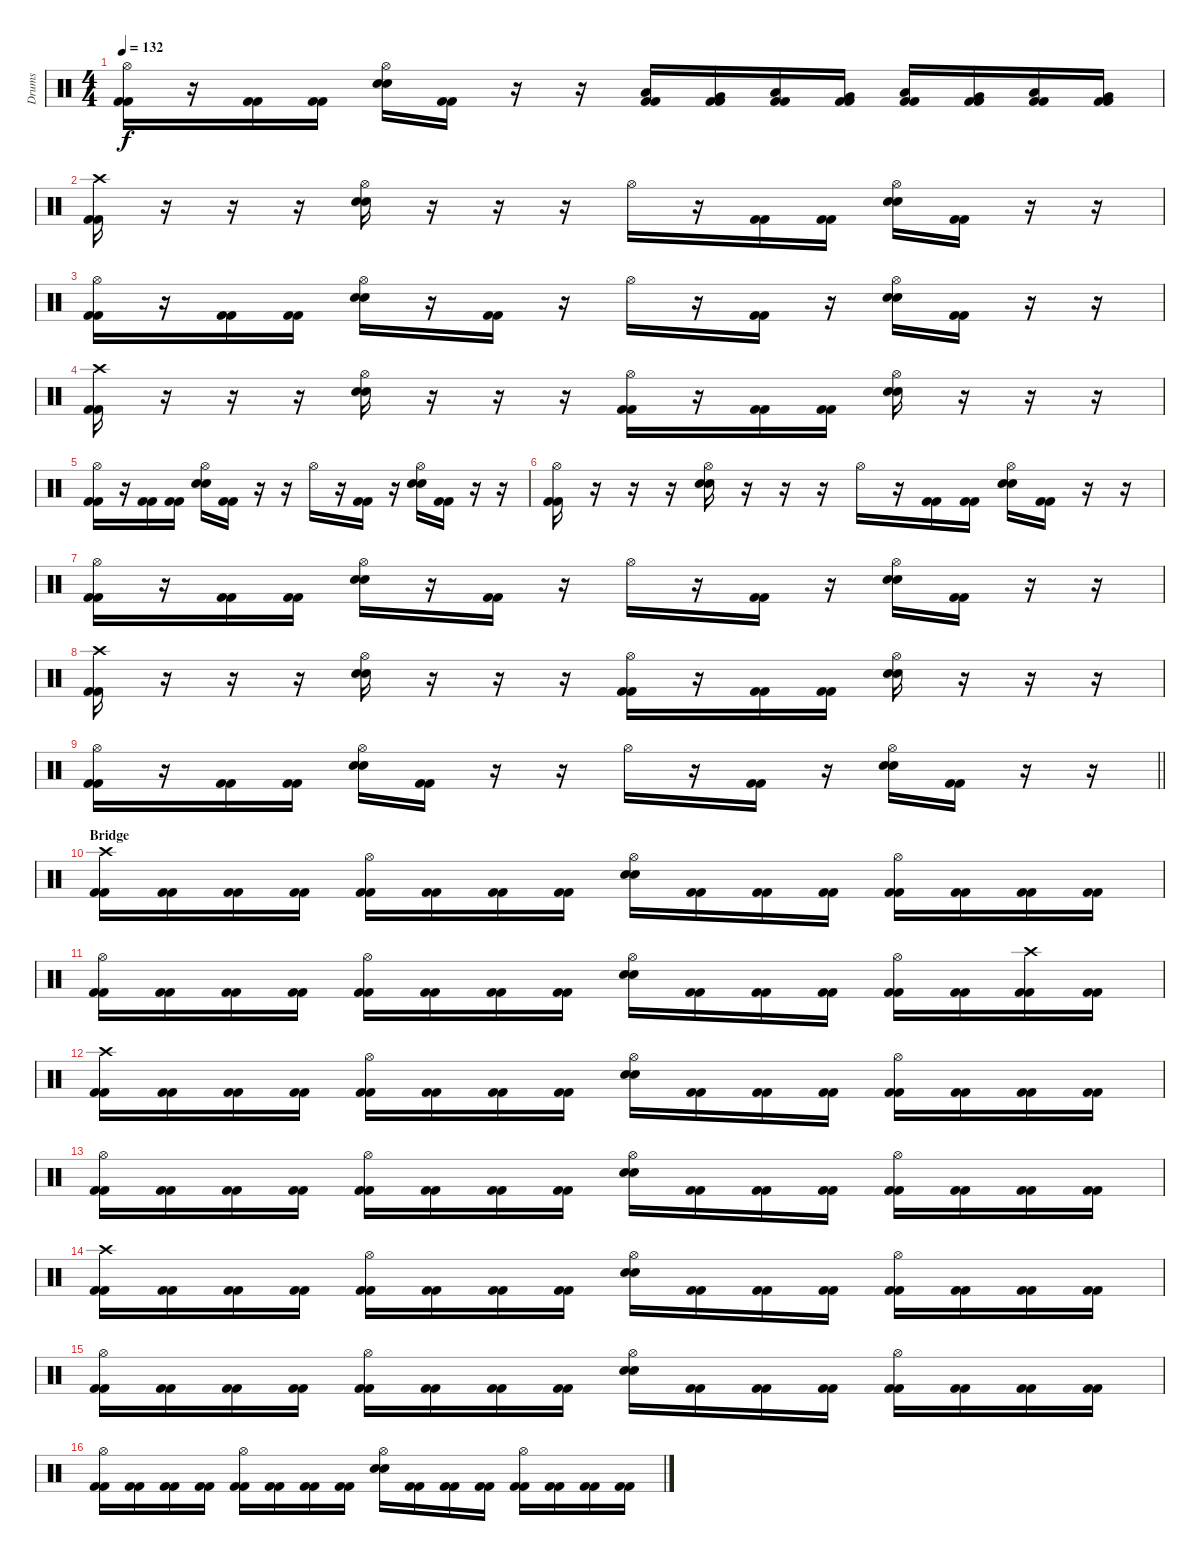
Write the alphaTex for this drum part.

\track ("Drums" "Drums") {instrument percussion}
\staff {score}
\articulation defaults
\ts (4 4)
\tempo 132
\clef neutral
\ks c
("Hi-Hat (open)" "Kick (hit) 2" "Kick (hit) 2").16{dy f} r.16 ("Kick (hit) 2" "Kick (hit) 2").16 ("Kick (hit) 2" "Kick (hit) 2").16 ("Hi-Hat (open)" "Snare (hit) 2" "Snare (hit) 2").16 ("Kick (hit) 2" "Kick (hit) 2").16 r.16 r.16 ("Low Tom (hit)" "Kick (hit) 2" "Kick (hit) 2").16 ("Very Low Tom (hit)" "Kick (hit) 2" "Kick (hit) 2").16 ("Low Tom (hit)" "Kick (hit) 2" "Kick (hit) 2").16 ("Very Low Tom (hit)" "Kick (hit) 2" "Kick (hit) 2").16 ("Low Tom (hit)" "Kick (hit) 2" "Kick (hit) 2").16 ("Very Low Tom (hit)" "Kick (hit) 2" "Kick (hit) 2").16 ("Low Tom (hit)" "Kick (hit) 2" "Kick (hit) 2").16 ("Very Low Tom (hit)" "Kick (hit) 2" "Kick (hit) 2").16 |
("Crash high (hit)" "Kick (hit) 2" "Kick (hit) 2").16 r.16 r.16 r.16 ("Hi-Hat (open)" "Snare (hit) 2" "Snare (hit) 2").16 r.16 r.16 r.16 "Hi-Hat (open)".16 r.16 ("Kick (hit) 2" "Kick (hit) 2").16 ("Kick (hit) 2" "Kick (hit) 2").16 ("Hi-Hat (open)" "Snare (hit) 2" "Snare (hit) 2").16 ("Kick (hit) 2" "Kick (hit) 2").16 r.16 r.16 |
("Hi-Hat (open)" "Kick (hit) 2" "Kick (hit) 2").16 r.16 ("Kick (hit) 2" "Kick (hit) 2").16 ("Kick (hit) 2" "Kick (hit) 2").16 ("Hi-Hat (open)" "Snare (hit) 2" "Snare (hit) 2").16 r.16 ("Kick (hit) 2" "Kick (hit) 2").16 r.16 "Hi-Hat (open)".16 r.16 ("Kick (hit) 2" "Kick (hit) 2").16 r.16 ("Hi-Hat (open)" "Snare (hit) 2" "Snare (hit) 2").16 ("Kick (hit) 2" "Kick (hit) 2").16 r.16 r.16 |
("Crash high (hit)" "Kick (hit) 2" "Kick (hit) 2").16 r.16 r.16 r.16 ("Hi-Hat (open)" "Snare (hit) 2" "Snare (hit) 2").16 r.16 r.16 r.16 ("Hi-Hat (open)" "Kick (hit) 2" "Kick (hit) 2").16 r.16 ("Kick (hit) 2" "Kick (hit) 2").16 ("Kick (hit) 2" "Kick (hit) 2").16 ("Hi-Hat (open)" "Snare (hit) 2" "Snare (hit) 2").16 r.16 r.16 r.16 |
("Hi-Hat (open)" "Kick (hit) 2" "Kick (hit) 2").16 r.16 ("Kick (hit) 2" "Kick (hit) 2").16 ("Kick (hit) 2" "Kick (hit) 2").16 ("Hi-Hat (open)" "Snare (hit) 2" "Snare (hit) 2").16 ("Kick (hit) 2" "Kick (hit) 2").16 r.16 r.16 "Hi-Hat (open)".16 r.16 ("Kick (hit) 2" "Kick (hit) 2").16 r.16 ("Hi-Hat (open)" "Snare (hit) 2" "Snare (hit) 2").16 ("Kick (hit) 2" "Kick (hit) 2").16 r.16 r.16 |
("Hi-Hat (open)" "Kick (hit) 2" "Kick (hit) 2").16 r.16 r.16 r.16 ("Hi-Hat (open)" "Snare (hit) 2" "Snare (hit) 2").16 r.16 r.16 r.16 "Hi-Hat (open)".16 r.16 ("Kick (hit) 2" "Kick (hit) 2").16 ("Kick (hit) 2" "Kick (hit) 2").16 ("Hi-Hat (open)" "Snare (hit) 2" "Snare (hit) 2").16 ("Kick (hit) 2" "Kick (hit) 2").16 r.16 r.16 |
("Hi-Hat (open)" "Kick (hit) 2" "Kick (hit) 2").16 r.16 ("Kick (hit) 2" "Kick (hit) 2").16 ("Kick (hit) 2" "Kick (hit) 2").16 ("Hi-Hat (open)" "Snare (hit) 2" "Snare (hit) 2").16 r.16 ("Kick (hit) 2" "Kick (hit) 2").16 r.16 "Hi-Hat (open)".16 r.16 ("Kick (hit) 2" "Kick (hit) 2").16 r.16 ("Hi-Hat (open)" "Snare (hit) 2" "Snare (hit) 2").16 ("Kick (hit) 2" "Kick (hit) 2").16 r.16 r.16 |
("Crash high (hit)" "Kick (hit) 2" "Kick (hit) 2").16 r.16 r.16 r.16 ("Hi-Hat (open)" "Snare (hit) 2" "Snare (hit) 2").16 r.16 r.16 r.16 ("Hi-Hat (open)" "Kick (hit) 2" "Kick (hit) 2").16 r.16 ("Kick (hit) 2" "Kick (hit) 2").16 ("Kick (hit) 2" "Kick (hit) 2").16 ("Hi-Hat (open)" "Snare (hit) 2" "Snare (hit) 2").16 r.16 r.16 r.16 |
\barLineRight lightlight
("Hi-Hat (open)" "Kick (hit) 2" "Kick (hit) 2").16 r.16 ("Kick (hit) 2" "Kick (hit) 2").16 ("Kick (hit) 2" "Kick (hit) 2").16 ("Hi-Hat (open)" "Snare (hit) 2" "Snare (hit) 2").16 ("Kick (hit) 2" "Kick (hit) 2").16 r.16 r.16 "Hi-Hat (open)".16 r.16 ("Kick (hit) 2" "Kick (hit) 2").16 r.16 ("Hi-Hat (open)" "Snare (hit) 2" "Snare (hit) 2").16 ("Kick (hit) 2" "Kick (hit) 2").16 r.16 r.16 |
\section ("" "Bridge")
("Crash high (hit)" "Kick (hit) 2" "Kick (hit) 2").16 ("Kick (hit) 2" "Kick (hit) 2").16 ("Kick (hit) 2" "Kick (hit) 2").16 ("Kick (hit) 2" "Kick (hit) 2").16 ("Hi-Hat (open)" "Kick (hit) 2" "Kick (hit) 2").16 ("Kick (hit) 2" "Kick (hit) 2").16 ("Kick (hit) 2" "Kick (hit) 2").16 ("Kick (hit) 2" "Kick (hit) 2").16 ("Hi-Hat (open)" "Snare (hit) 2" "Snare (hit) 2").16 ("Kick (hit) 2" "Kick (hit) 2").16 ("Kick (hit) 2" "Kick (hit) 2").16 ("Kick (hit) 2" "Kick (hit) 2").16 ("Hi-Hat (open)" "Kick (hit) 2" "Kick (hit) 2").16 ("Kick (hit) 2" "Kick (hit) 2").16 ("Kick (hit) 2" "Kick (hit) 2").16 ("Kick (hit) 2" "Kick (hit) 2").16 |
("Hi-Hat (open)" "Kick (hit) 2" "Kick (hit) 2").16 ("Kick (hit) 2" "Kick (hit) 2").16 ("Kick (hit) 2" "Kick (hit) 2").16 ("Kick (hit) 2" "Kick (hit) 2").16 ("Hi-Hat (open)" "Kick (hit) 2" "Kick (hit) 2").16 ("Kick (hit) 2" "Kick (hit) 2").16 ("Kick (hit) 2" "Kick (hit) 2").16 ("Kick (hit) 2" "Kick (hit) 2").16 ("Hi-Hat (open)" "Snare (hit) 2" "Snare (hit) 2").16 ("Kick (hit) 2" "Kick (hit) 2").16 ("Kick (hit) 2" "Kick (hit) 2").16 ("Kick (hit) 2" "Kick (hit) 2").16 ("Hi-Hat (open)" "Kick (hit) 2" "Kick (hit) 2").16 ("Kick (hit) 2" "Kick (hit) 2").16 ("Crash high (hit)" "Kick (hit) 2" "Kick (hit) 2").16 ("Kick (hit) 2" "Kick (hit) 2").16 |
("Crash high (hit)" "Kick (hit) 2" "Kick (hit) 2").16 ("Kick (hit) 2" "Kick (hit) 2").16 ("Kick (hit) 2" "Kick (hit) 2").16 ("Kick (hit) 2" "Kick (hit) 2").16 ("Hi-Hat (open)" "Kick (hit) 2" "Kick (hit) 2").16 ("Kick (hit) 2" "Kick (hit) 2").16 ("Kick (hit) 2" "Kick (hit) 2").16 ("Kick (hit) 2" "Kick (hit) 2").16 ("Hi-Hat (open)" "Snare (hit) 2" "Snare (hit) 2").16 ("Kick (hit) 2" "Kick (hit) 2").16 ("Kick (hit) 2" "Kick (hit) 2").16 ("Kick (hit) 2" "Kick (hit) 2").16 ("Hi-Hat (open)" "Kick (hit) 2" "Kick (hit) 2").16 ("Kick (hit) 2" "Kick (hit) 2").16 ("Kick (hit) 2" "Kick (hit) 2").16 ("Kick (hit) 2" "Kick (hit) 2").16 |
("Hi-Hat (open)" "Kick (hit) 2" "Kick (hit) 2").16 ("Kick (hit) 2" "Kick (hit) 2").16 ("Kick (hit) 2" "Kick (hit) 2").16 ("Kick (hit) 2" "Kick (hit) 2").16 ("Hi-Hat (open)" "Kick (hit) 2" "Kick (hit) 2").16 ("Kick (hit) 2" "Kick (hit) 2").16 ("Kick (hit) 2" "Kick (hit) 2").16 ("Kick (hit) 2" "Kick (hit) 2").16 ("Hi-Hat (open)" "Snare (hit) 2" "Snare (hit) 2").16 ("Kick (hit) 2" "Kick (hit) 2").16 ("Kick (hit) 2" "Kick (hit) 2").16 ("Kick (hit) 2" "Kick (hit) 2").16 ("Hi-Hat (open)" "Kick (hit) 2" "Kick (hit) 2").16 ("Kick (hit) 2" "Kick (hit) 2").16 ("Kick (hit) 2" "Kick (hit) 2").16 ("Kick (hit) 2" "Kick (hit) 2").16 |
("Crash high (hit)" "Kick (hit) 2" "Kick (hit) 2").16 ("Kick (hit) 2" "Kick (hit) 2").16 ("Kick (hit) 2" "Kick (hit) 2").16 ("Kick (hit) 2" "Kick (hit) 2").16 ("Hi-Hat (open)" "Kick (hit) 2" "Kick (hit) 2").16 ("Kick (hit) 2" "Kick (hit) 2").16 ("Kick (hit) 2" "Kick (hit) 2").16 ("Kick (hit) 2" "Kick (hit) 2").16 ("Hi-Hat (open)" "Snare (hit) 2" "Snare (hit) 2").16 ("Kick (hit) 2" "Kick (hit) 2").16 ("Kick (hit) 2" "Kick (hit) 2").16 ("Kick (hit) 2" "Kick (hit) 2").16 ("Hi-Hat (open)" "Kick (hit) 2" "Kick (hit) 2").16 ("Kick (hit) 2" "Kick (hit) 2").16 ("Kick (hit) 2" "Kick (hit) 2").16 ("Kick (hit) 2" "Kick (hit) 2").16 |
("Hi-Hat (open)" "Kick (hit) 2" "Kick (hit) 2").16 ("Kick (hit) 2" "Kick (hit) 2").16 ("Kick (hit) 2" "Kick (hit) 2").16 ("Kick (hit) 2" "Kick (hit) 2").16 ("Hi-Hat (open)" "Kick (hit) 2" "Kick (hit) 2").16 ("Kick (hit) 2" "Kick (hit) 2").16 ("Kick (hit) 2" "Kick (hit) 2").16 ("Kick (hit) 2" "Kick (hit) 2").16 ("Hi-Hat (open)" "Snare (hit) 2" "Snare (hit) 2").16 ("Kick (hit) 2" "Kick (hit) 2").16 ("Kick (hit) 2" "Kick (hit) 2").16 ("Kick (hit) 2" "Kick (hit) 2").16 ("Hi-Hat (open)" "Kick (hit) 2" "Kick (hit) 2").16 ("Kick (hit) 2" "Kick (hit) 2").16 ("Kick (hit) 2" "Kick (hit) 2").16 ("Kick (hit) 2" "Kick (hit) 2").16 |
("Hi-Hat (open)" "Kick (hit) 2" "Kick (hit) 2").16 ("Kick (hit) 2" "Kick (hit) 2").16 ("Kick (hit) 2" "Kick (hit) 2").16 ("Kick (hit) 2" "Kick (hit) 2").16 ("Hi-Hat (open)" "Kick (hit) 2" "Kick (hit) 2").16 ("Kick (hit) 2" "Kick (hit) 2").16 ("Kick (hit) 2" "Kick (hit) 2").16 ("Kick (hit) 2" "Kick (hit) 2").16 ("Hi-Hat (open)" "Snare (hit) 2" "Snare (hit) 2").16 ("Kick (hit) 2" "Kick (hit) 2").16 ("Kick (hit) 2" "Kick (hit) 2").16 ("Kick (hit) 2" "Kick (hit) 2").16 ("Hi-Hat (open)" "Kick (hit) 2" "Kick (hit) 2").16 ("Kick (hit) 2" "Kick (hit) 2").16 ("Kick (hit) 2" "Kick (hit) 2").16 ("Kick (hit) 2" "Kick (hit) 2").16
